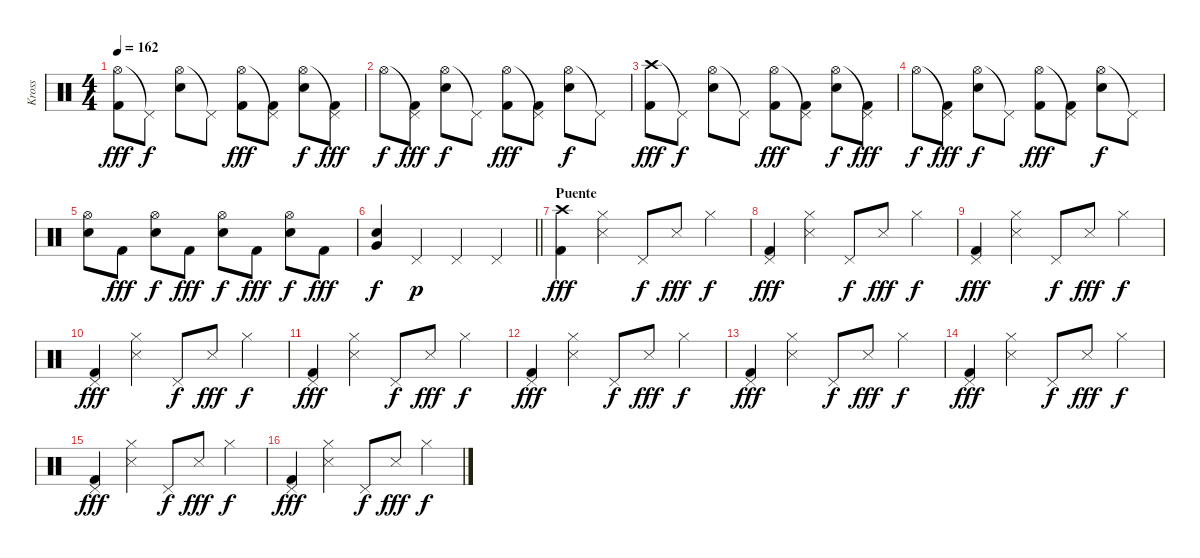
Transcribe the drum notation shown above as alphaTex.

\track ("Kross" "Kross") {instrument percussion}
\staff {score}
\articulation defaults
\ts (4 4)
\tempo 162
\clef neutral
\ks c
("Hi-Hat (open)" "Kick (hit) 2").8{dy fff} "Pedal Hi-Hat (hit)"{t}.8{dy f} ("Hi-Hat (open)" "Electric Snare (hit)").8 "Pedal Hi-Hat (hit)"{t}.8 ("Hi-Hat (open)" "Kick (hit) 2").8{dy fff} ("Pedal Hi-Hat (hit)"{t} "Kick (hit) 2").8 ("Hi-Hat (open)" "Electric Snare (hit)").8{dy f} ("Pedal Hi-Hat (hit)"{t} "Kick (hit) 2").8{dy fff} |
"Hi-Hat (open)".8{dy f} ("Pedal Hi-Hat (hit)"{t} "Kick (hit) 2").8{dy fff} ("Hi-Hat (open)" "Electric Snare (hit)").8{dy f} "Pedal Hi-Hat (hit)"{t}.8 ("Hi-Hat (open)" "Kick (hit) 2").8{dy fff} ("Pedal Hi-Hat (hit)"{t} "Kick (hit) 2").8 ("Hi-Hat (open)" "Electric Snare (hit)").8{dy f} "Pedal Hi-Hat (hit)"{t}.8 |
("Crash high (hit)" "Kick (hit) 2").8{dy fff} "Pedal Hi-Hat (hit)"{t}.8{dy f} ("Hi-Hat (open)" "Electric Snare (hit)").8 "Pedal Hi-Hat (hit)"{t}.8 ("Hi-Hat (open)" "Kick (hit) 2").8{dy fff} ("Pedal Hi-Hat (hit)"{t} "Kick (hit) 2").8 ("Hi-Hat (open)" "Electric Snare (hit)").8{dy f} ("Pedal Hi-Hat (hit)"{t} "Kick (hit) 2").8{dy fff} |
"Hi-Hat (open)".8{dy f} ("Pedal Hi-Hat (hit)"{t} "Kick (hit) 2").8{dy fff} ("Hi-Hat (open)" "Electric Snare (hit)").8{dy f} "Pedal Hi-Hat (hit)"{t}.8 ("Hi-Hat (open)" "Kick (hit) 2").8{dy fff} ("Pedal Hi-Hat (hit)"{t} "Kick (hit) 2").8 ("Hi-Hat (open)" "Electric Snare (hit)").8{dy f} "Pedal Hi-Hat (hit)"{t}.8 |
("Hi-Hat (open)" "Electric Snare (hit)").8 "Kick (hit) 2".8{dy fff} ("Hi-Hat (open)" "Electric Snare (hit)").8{dy f} "Kick (hit) 2".8{dy fff} ("Hi-Hat (open)" "Electric Snare (hit)").8{dy f} "Kick (hit) 2".8{dy fff} ("Hi-Hat (open)" "Electric Snare (hit)").8{dy f} "Kick (hit) 2".8{dy fff} |
\barLineRight lightlight
("Very Low Tom (hit)" "Electric Snare (hit)").4{dy f} "Pedal Hi-Hat (hit)".4{dy p} "Pedal Hi-Hat (hit)".4 "Pedal Hi-Hat (hit)".4 |
\section ("" "Puente")
("Crash high (hit)" "Kick (hit) 2").4{dy fff} ("Hi-Hat (closed)" "Snare (side stick) 3").4 "Pedal Hi-Hat (hit)".8{dy f} "Snare (side stick) 3".8{dy fff} "Hi-Hat (closed)".4{dy f} |
("Pedal Hi-Hat (hit)" "Kick (hit) 2").4{dy fff} ("Hi-Hat (closed)" "Snare (side stick) 3").4 "Pedal Hi-Hat (hit)".8{dy f} "Snare (side stick) 3".8{dy fff} "Hi-Hat (closed)".4{dy f} |
("Pedal Hi-Hat (hit)" "Kick (hit) 2").4{dy fff} ("Hi-Hat (closed)" "Snare (side stick) 3").4 "Pedal Hi-Hat (hit)".8{dy f} "Snare (side stick) 3".8{dy fff} "Hi-Hat (closed)".4{dy f} |
("Pedal Hi-Hat (hit)" "Kick (hit) 2").4{dy fff} ("Hi-Hat (closed)" "Snare (side stick) 3").4 "Pedal Hi-Hat (hit)".8{dy f} "Snare (side stick) 3".8{dy fff} "Hi-Hat (closed)".4{dy f} |
("Pedal Hi-Hat (hit)" "Kick (hit) 2").4{dy fff} ("Hi-Hat (closed)" "Snare (side stick) 3").4 "Pedal Hi-Hat (hit)".8{dy f} "Snare (side stick) 3".8{dy fff} "Hi-Hat (closed)".4{dy f} |
("Pedal Hi-Hat (hit)" "Kick (hit) 2").4{dy fff} ("Hi-Hat (closed)" "Snare (side stick) 3").4 "Pedal Hi-Hat (hit)".8{dy f} "Snare (side stick) 3".8{dy fff} "Hi-Hat (closed)".4{dy f} |
("Pedal Hi-Hat (hit)" "Kick (hit) 2").4{dy fff} ("Hi-Hat (closed)" "Snare (side stick) 3").4 "Pedal Hi-Hat (hit)".8{dy f} "Snare (side stick) 3".8{dy fff} "Hi-Hat (closed)".4{dy f} |
("Pedal Hi-Hat (hit)" "Kick (hit) 2").4{dy fff} ("Hi-Hat (closed)" "Snare (side stick) 3").4 "Pedal Hi-Hat (hit)".8{dy f} "Snare (side stick) 3".8{dy fff} "Hi-Hat (closed)".4{dy f} |
("Pedal Hi-Hat (hit)" "Kick (hit) 2").4{dy fff} ("Hi-Hat (closed)" "Snare (side stick) 3").4 "Pedal Hi-Hat (hit)".8{dy f} "Snare (side stick) 3".8{dy fff} "Hi-Hat (closed)".4{dy f} |
("Pedal Hi-Hat (hit)" "Kick (hit) 2").4{dy fff} ("Hi-Hat (closed)" "Snare (side stick) 3").4 "Pedal Hi-Hat (hit)".8{dy f} "Snare (side stick) 3".8{dy fff} "Hi-Hat (closed)".4{dy f}
